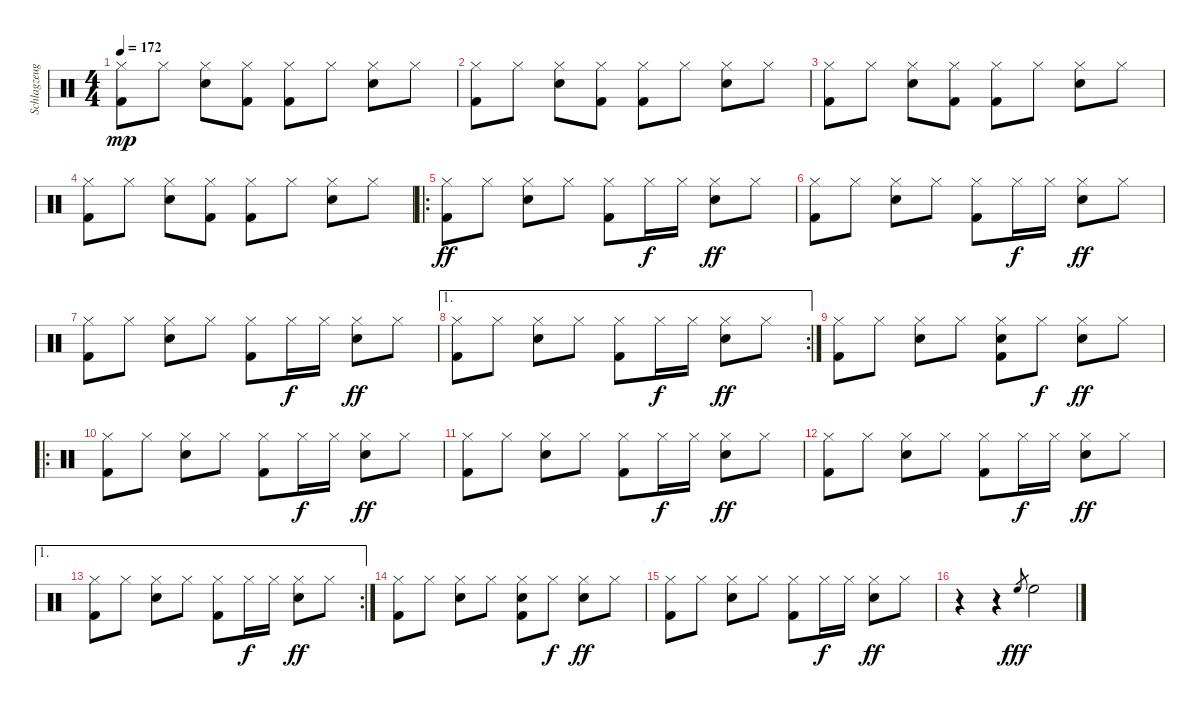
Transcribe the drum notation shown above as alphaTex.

\track ("Schlagzeug" "Schlagzeug") {instrument percussion}
\staff {score}
\articulation defaults
\ts (4 4)
\tempo 172
\clef neutral
\ks c
("Hi-Hat (closed)" "Kick (hit) 2").8{dy mp} "Hi-Hat (closed)".8 ("Hi-Hat (closed)" "Electric Snare (hit)").8 ("Hi-Hat (closed)" "Kick (hit) 2").8 ("Hi-Hat (closed)" "Kick (hit) 2").8 "Hi-Hat (closed)".8 ("Hi-Hat (closed)" "Electric Snare (hit)").8 "Hi-Hat (closed)".8 |
("Hi-Hat (closed)" "Kick (hit) 2").8 "Hi-Hat (closed)".8 ("Hi-Hat (closed)" "Electric Snare (hit)").8 ("Hi-Hat (closed)" "Kick (hit) 2").8 ("Hi-Hat (closed)" "Kick (hit) 2").8 "Hi-Hat (closed)".8 ("Hi-Hat (closed)" "Electric Snare (hit)").8 "Hi-Hat (closed)".8 |
("Hi-Hat (closed)" "Kick (hit) 2").8 "Hi-Hat (closed)".8 ("Hi-Hat (closed)" "Electric Snare (hit)").8 ("Hi-Hat (closed)" "Kick (hit) 2").8 ("Hi-Hat (closed)" "Kick (hit) 2").8 "Hi-Hat (closed)".8 ("Hi-Hat (closed)" "Electric Snare (hit)").8 "Hi-Hat (closed)".8 |
("Hi-Hat (closed)" "Kick (hit) 2").8 "Hi-Hat (closed)".8 ("Hi-Hat (closed)" "Electric Snare (hit)").8 ("Hi-Hat (closed)" "Kick (hit) 2").8 ("Hi-Hat (closed)" "Kick (hit) 2").8 "Hi-Hat (closed)".8 ("Hi-Hat (closed)" "Electric Snare (hit)").8 "Hi-Hat (closed)".8 |
\ro
("Hi-Hat (closed)" "Kick (hit) 2").8{dy ff} "Hi-Hat (closed)".8 ("Hi-Hat (closed)" "Electric Snare (hit)").8 "Hi-Hat (closed)".8 ("Hi-Hat (closed)" "Kick (hit) 2").8 "Hi-Hat (closed)".16{dy f} "Hi-Hat (closed)".16 ("Hi-Hat (closed)" "Electric Snare (hit)").8{dy ff} "Hi-Hat (closed)".8 |
("Hi-Hat (closed)" "Kick (hit) 2").8 "Hi-Hat (closed)".8 ("Hi-Hat (closed)" "Electric Snare (hit)").8 "Hi-Hat (closed)".8 ("Hi-Hat (closed)" "Kick (hit) 2").8 "Hi-Hat (closed)".16{dy f} "Hi-Hat (closed)".16 ("Hi-Hat (closed)" "Electric Snare (hit)").8{dy ff} "Hi-Hat (closed)".8 |
("Hi-Hat (closed)" "Kick (hit) 2").8 "Hi-Hat (closed)".8 ("Hi-Hat (closed)" "Electric Snare (hit)").8 "Hi-Hat (closed)".8 ("Hi-Hat (closed)" "Kick (hit) 2").8 "Hi-Hat (closed)".16{dy f} "Hi-Hat (closed)".16 ("Hi-Hat (closed)" "Electric Snare (hit)").8{dy ff} "Hi-Hat (closed)".8 |
\ae 1
\rc 2
("Hi-Hat (closed)" "Kick (hit) 2").8 "Hi-Hat (closed)".8 ("Hi-Hat (closed)" "Electric Snare (hit)").8 "Hi-Hat (closed)".8 ("Hi-Hat (closed)" "Kick (hit) 2").8 "Hi-Hat (closed)".16{dy f} "Hi-Hat (closed)".16 ("Hi-Hat (closed)" "Electric Snare (hit)").8{dy ff} "Hi-Hat (closed)".8 |
("Hi-Hat (closed)" "Kick (hit) 2").8 "Hi-Hat (closed)".8 ("Hi-Hat (closed)" "Electric Snare (hit)").8 "Hi-Hat (closed)".8 ("Hi-Hat (closed)" "Electric Snare (hit)" "Kick (hit) 2").8 "Hi-Hat (closed)".8{dy f} ("Hi-Hat (closed)" "Electric Snare (hit)").8{dy ff} "Hi-Hat (closed)".8 |
\ro
("Hi-Hat (closed)" "Kick (hit) 2").8 "Hi-Hat (closed)".8 ("Hi-Hat (closed)" "Electric Snare (hit)").8 "Hi-Hat (closed)".8 ("Hi-Hat (closed)" "Kick (hit) 2").8 "Hi-Hat (closed)".16{dy f} "Hi-Hat (closed)".16 ("Hi-Hat (closed)" "Electric Snare (hit)").8{dy ff} "Hi-Hat (closed)".8 |
("Hi-Hat (closed)" "Kick (hit) 2").8 "Hi-Hat (closed)".8 ("Hi-Hat (closed)" "Electric Snare (hit)").8 "Hi-Hat (closed)".8 ("Hi-Hat (closed)" "Kick (hit) 2").8 "Hi-Hat (closed)".16{dy f} "Hi-Hat (closed)".16 ("Hi-Hat (closed)" "Electric Snare (hit)").8{dy ff} "Hi-Hat (closed)".8 |
("Hi-Hat (closed)" "Kick (hit) 2").8 "Hi-Hat (closed)".8 ("Hi-Hat (closed)" "Electric Snare (hit)").8 "Hi-Hat (closed)".8 ("Hi-Hat (closed)" "Kick (hit) 2").8 "Hi-Hat (closed)".16{dy f} "Hi-Hat (closed)".16 ("Hi-Hat (closed)" "Electric Snare (hit)").8{dy ff} "Hi-Hat (closed)".8 |
\ae 1
\rc 2
("Hi-Hat (closed)" "Kick (hit) 2").8 "Hi-Hat (closed)".8 ("Hi-Hat (closed)" "Electric Snare (hit)").8 "Hi-Hat (closed)".8 ("Hi-Hat (closed)" "Kick (hit) 2").8 "Hi-Hat (closed)".16{dy f} "Hi-Hat (closed)".16 ("Hi-Hat (closed)" "Electric Snare (hit)").8{dy ff} "Hi-Hat (closed)".8 |
("Hi-Hat (closed)" "Kick (hit) 2").8 "Hi-Hat (closed)".8 ("Hi-Hat (closed)" "Electric Snare (hit)").8 "Hi-Hat (closed)".8 ("Hi-Hat (closed)" "Electric Snare (hit)" "Kick (hit) 2").8 "Hi-Hat (closed)".8{dy f} ("Hi-Hat (closed)" "Electric Snare (hit)").8{dy ff} "Hi-Hat (closed)".8 |
("Hi-Hat (closed)" "Kick (hit) 2").8 "Hi-Hat (closed)".8 ("Hi-Hat (closed)" "Electric Snare (hit)").8 "Hi-Hat (closed)".8 ("Hi-Hat (closed)" "Kick (hit) 2").8 "Hi-Hat (closed)".16{dy f} "Hi-Hat (closed)".16 ("Hi-Hat (closed)" "Electric Snare (hit)").8{dy ff} "Hi-Hat (closed)".8 |
r.4 r.4 "High Floor Tom (hit)".8{gr dy fff} "High Floor Tom (hit)".2
